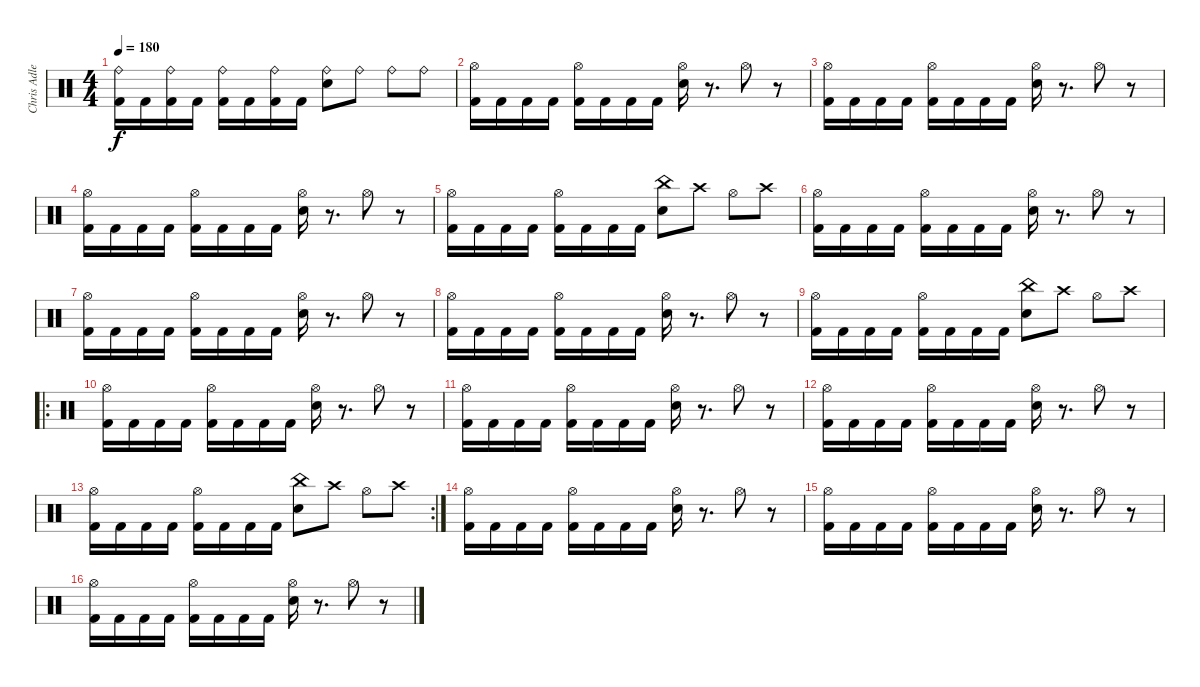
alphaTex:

\track ("Chris Adler" "Chris Adle") {instrument percussion}
\staff {score}
\articulation defaults
\ts (4 4)
\tempo 180
\clef neutral
\ks c
("Ride (bell)" "Kick (hit) 2").16{dy f} "Kick (hit) 2".16 ("Ride (bell)" "Kick (hit) 2").16 "Kick (hit) 2".16 ("Ride (bell)" "Kick (hit) 2").16 "Kick (hit) 2".16 ("Ride (bell)" "Kick (hit) 2").16 "Kick (hit) 2".16 ("Ride (bell)" "Electric Snare (hit)").8 "Ride (bell)".8 "Ride (bell)".8 "Ride (bell)".8 |
("Hi-Hat (open)" "Kick (hit) 2").16 "Kick (hit) 2".16 "Kick (hit) 2".16 "Kick (hit) 2".16 ("Hi-Hat (open)" "Kick (hit) 2").16 "Kick (hit) 2".16 "Kick (hit) 2".16 "Kick (hit) 2".16 ("Hi-Hat (open)" "Electric Snare (hit)").16 r.8{d} "Hi-Hat (open)".8 r.8 |
("Hi-Hat (open)" "Kick (hit) 2").16 "Kick (hit) 2".16 "Kick (hit) 2".16 "Kick (hit) 2".16 ("Hi-Hat (open)" "Kick (hit) 2").16 "Kick (hit) 2".16 "Kick (hit) 2".16 "Kick (hit) 2".16 ("Hi-Hat (open)" "Electric Snare (hit)").16 r.8{d} "Hi-Hat (open)".8 r.8 |
("Hi-Hat (open)" "Kick (hit) 2").16 "Kick (hit) 2".16 "Kick (hit) 2".16 "Kick (hit) 2".16 ("Hi-Hat (open)" "Kick (hit) 2").16 "Kick (hit) 2".16 "Kick (hit) 2".16 "Kick (hit) 2".16 ("Hi-Hat (open)" "Electric Snare (hit)").16 r.8{d} "Hi-Hat (open)".8 r.8 |
("Hi-Hat (open)" "Kick (hit) 2").16 "Kick (hit) 2".16 "Kick (hit) 2".16 "Kick (hit) 2".16 ("Hi-Hat (open)" "Kick (hit) 2").16 "Kick (hit) 2".16 "Kick (hit) 2".16 "Kick (hit) 2".16 ("China (hit)" "Electric Snare (hit)").8 "Crash high (hit)".8 "Hi-Hat (open)".8 "Crash high (hit)".8 |
("Hi-Hat (open)" "Kick (hit) 2").16 "Kick (hit) 2".16 "Kick (hit) 2".16 "Kick (hit) 2".16 ("Hi-Hat (open)" "Kick (hit) 2").16 "Kick (hit) 2".16 "Kick (hit) 2".16 "Kick (hit) 2".16 ("Hi-Hat (open)" "Electric Snare (hit)").16 r.8{d} "Hi-Hat (open)".8 r.8 |
("Hi-Hat (open)" "Kick (hit) 2").16 "Kick (hit) 2".16 "Kick (hit) 2".16 "Kick (hit) 2".16 ("Hi-Hat (open)" "Kick (hit) 2").16 "Kick (hit) 2".16 "Kick (hit) 2".16 "Kick (hit) 2".16 ("Hi-Hat (open)" "Electric Snare (hit)").16 r.8{d} "Hi-Hat (open)".8 r.8 |
("Hi-Hat (open)" "Kick (hit) 2").16 "Kick (hit) 2".16 "Kick (hit) 2".16 "Kick (hit) 2".16 ("Hi-Hat (open)" "Kick (hit) 2").16 "Kick (hit) 2".16 "Kick (hit) 2".16 "Kick (hit) 2".16 ("Hi-Hat (open)" "Electric Snare (hit)").16 r.8{d} "Hi-Hat (open)".8 r.8 |
("Hi-Hat (open)" "Kick (hit) 2").16 "Kick (hit) 2".16 "Kick (hit) 2".16 "Kick (hit) 2".16 ("Hi-Hat (open)" "Kick (hit) 2").16 "Kick (hit) 2".16 "Kick (hit) 2".16 "Kick (hit) 2".16 ("China (hit)" "Electric Snare (hit)").8 "Crash high (hit)".8 "Hi-Hat (open)".8 "Crash high (hit)".8 |
\ro
("Hi-Hat (open)" "Kick (hit) 2").16 "Kick (hit) 2".16 "Kick (hit) 2".16 "Kick (hit) 2".16 ("Hi-Hat (open)" "Kick (hit) 2").16 "Kick (hit) 2".16 "Kick (hit) 2".16 "Kick (hit) 2".16 ("Hi-Hat (open)" "Electric Snare (hit)").16 r.8{d} "Hi-Hat (open)".8 r.8 |
("Hi-Hat (open)" "Kick (hit) 2").16 "Kick (hit) 2".16 "Kick (hit) 2".16 "Kick (hit) 2".16 ("Hi-Hat (open)" "Kick (hit) 2").16 "Kick (hit) 2".16 "Kick (hit) 2".16 "Kick (hit) 2".16 ("Hi-Hat (open)" "Electric Snare (hit)").16 r.8{d} "Hi-Hat (open)".8 r.8 |
("Hi-Hat (open)" "Kick (hit) 2").16 "Kick (hit) 2".16 "Kick (hit) 2".16 "Kick (hit) 2".16 ("Hi-Hat (open)" "Kick (hit) 2").16 "Kick (hit) 2".16 "Kick (hit) 2".16 "Kick (hit) 2".16 ("Hi-Hat (open)" "Electric Snare (hit)").16 r.8{d} "Hi-Hat (open)".8 r.8 |
\rc 2
("Hi-Hat (open)" "Kick (hit) 2").16 "Kick (hit) 2".16 "Kick (hit) 2".16 "Kick (hit) 2".16 ("Hi-Hat (open)" "Kick (hit) 2").16 "Kick (hit) 2".16 "Kick (hit) 2".16 "Kick (hit) 2".16 ("China (hit)" "Electric Snare (hit)").8 "Crash high (hit)".8 "Hi-Hat (open)".8 "Crash high (hit)".8 |
("Hi-Hat (open)" "Kick (hit) 2").16 "Kick (hit) 2".16 "Kick (hit) 2".16 "Kick (hit) 2".16 ("Hi-Hat (open)" "Kick (hit) 2").16 "Kick (hit) 2".16 "Kick (hit) 2".16 "Kick (hit) 2".16 ("Hi-Hat (open)" "Electric Snare (hit)").16 r.8{d} "Hi-Hat (open)".8 r.8 |
("Hi-Hat (open)" "Kick (hit) 2").16 "Kick (hit) 2".16 "Kick (hit) 2".16 "Kick (hit) 2".16 ("Hi-Hat (open)" "Kick (hit) 2").16 "Kick (hit) 2".16 "Kick (hit) 2".16 "Kick (hit) 2".16 ("Hi-Hat (open)" "Electric Snare (hit)").16 r.8{d} "Hi-Hat (open)".8 r.8 |
("Hi-Hat (open)" "Kick (hit) 2").16 "Kick (hit) 2".16 "Kick (hit) 2".16 "Kick (hit) 2".16 ("Hi-Hat (open)" "Kick (hit) 2").16 "Kick (hit) 2".16 "Kick (hit) 2".16 "Kick (hit) 2".16 ("Hi-Hat (open)" "Electric Snare (hit)").16 r.8{d} "Hi-Hat (open)".8 r.8
